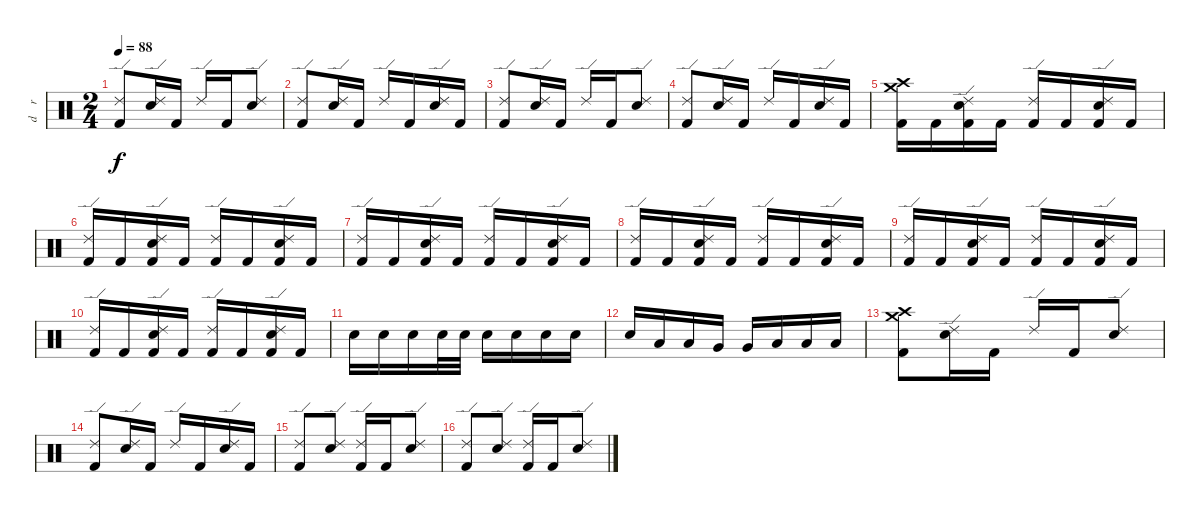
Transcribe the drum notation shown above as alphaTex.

\track ("d    r     u    m    s" "d    r    ") {instrument percussion}
\staff {score}
\articulation defaults
\ts (2 4)
\tempo 88
\clef neutral
\ks c
("Ride (edge) 2" "Kick (hit) 2").8{dy f} ("Ride (edge) 2" "Electric Snare (hit)").16 "Kick (hit) 2".16 "Ride (edge) 2".16 "Kick (hit) 2".16 ("Ride (edge) 2" "Electric Snare (hit)").8 |
("Ride (edge) 2" "Kick (hit) 2").8 ("Ride (edge) 2" "Electric Snare (hit)").16 "Kick (hit) 2".16 "Ride (edge) 2".16 "Kick (hit) 2".16 ("Ride (edge) 2" "Electric Snare (hit)").16 "Kick (hit) 2".16 |
("Ride (edge) 2" "Kick (hit) 2").8 ("Ride (edge) 2" "Electric Snare (hit)").16 "Kick (hit) 2".16 "Ride (edge) 2".16 "Kick (hit) 2".16 ("Ride (edge) 2" "Electric Snare (hit)").8 |
("Ride (edge) 2" "Kick (hit) 2").8 ("Ride (edge) 2" "Electric Snare (hit)").16 "Kick (hit) 2".16 "Ride (edge) 2".16 "Kick (hit) 2".16 ("Ride (edge) 2" "Electric Snare (hit)").16 "Kick (hit) 2".16 |
("Crash high (hit)" "Crash medium (hit)" "Kick (hit) 2").16 "Kick (hit) 2".16 ("Ride (edge) 2" "Electric Snare (hit)" "Kick (hit) 2").16 "Kick (hit) 2".16 ("Ride (edge) 2" "Kick (hit) 2").16 "Kick (hit) 2".16 ("Ride (edge) 2" "Electric Snare (hit)" "Kick (hit) 2").16 "Kick (hit) 2".16 |
("Ride (edge) 2" "Kick (hit) 2").16 "Kick (hit) 2".16 ("Ride (edge) 2" "Electric Snare (hit)" "Kick (hit) 2").16 "Kick (hit) 2".16 ("Ride (edge) 2" "Kick (hit) 2").16 "Kick (hit) 2".16 ("Ride (edge) 2" "Electric Snare (hit)" "Kick (hit) 2").16 "Kick (hit) 2".16 |
("Ride (edge) 2" "Kick (hit) 2").16 "Kick (hit) 2".16 ("Ride (edge) 2" "Electric Snare (hit)" "Kick (hit) 2").16 "Kick (hit) 2".16 ("Ride (edge) 2" "Kick (hit) 2").16 "Kick (hit) 2".16 ("Ride (edge) 2" "Electric Snare (hit)" "Kick (hit) 2").16 "Kick (hit) 2".16 |
("Ride (edge) 2" "Kick (hit) 2").16 "Kick (hit) 2".16 ("Ride (edge) 2" "Electric Snare (hit)" "Kick (hit) 2").16 "Kick (hit) 2".16 ("Ride (edge) 2" "Kick (hit) 2").16 "Kick (hit) 2".16 ("Ride (edge) 2" "Electric Snare (hit)" "Kick (hit) 2").16 "Kick (hit) 2".16 |
("Ride (edge) 2" "Kick (hit) 2").16 "Kick (hit) 2".16 ("Ride (edge) 2" "Electric Snare (hit)" "Kick (hit) 2").16 "Kick (hit) 2".16 ("Ride (edge) 2" "Kick (hit) 2").16 "Kick (hit) 2".16 ("Ride (edge) 2" "Electric Snare (hit)" "Kick (hit) 2").16 "Kick (hit) 2".16 |
("Ride (edge) 2" "Kick (hit) 2").16 "Kick (hit) 2".16 ("Ride (edge) 2" "Electric Snare (hit)" "Kick (hit) 2").16 "Kick (hit) 2".16 ("Ride (edge) 2" "Kick (hit) 2").16 "Kick (hit) 2".16 ("Ride (edge) 2" "Electric Snare (hit)" "Kick (hit) 2").16 "Kick (hit) 2".16 |
"Electric Snare (hit)".16 "Electric Snare (hit)".16 "Electric Snare (hit)".16 "Electric Snare (hit)".32 "Electric Snare (hit)".32 "Electric Snare (hit)".16 "Electric Snare (hit)".16 "Electric Snare (hit)".16 "Electric Snare (hit)".16 |
"Electric Snare (hit)".16 "Low Tom (hit)".16 "Low Tom (hit)".16 "Very Low Tom (hit)".16 "Very Low Tom (hit)".16 "Low Floor Tom (hit)".16 "Low Floor Tom (hit)".16 "Low Floor Tom (hit)".16 |
("Crash high (hit)" "Crash medium (hit)" "Kick (hit) 2").8 ("Ride (edge) 2" "Electric Snare (hit)").16 "Kick (hit) 2".16 "Ride (edge) 2".16 "Kick (hit) 2".16 ("Ride (edge) 2" "Electric Snare (hit)").8 |
("Ride (edge) 2" "Kick (hit) 2").8 ("Ride (edge) 2" "Electric Snare (hit)").16 "Kick (hit) 2".16 "Ride (edge) 2".16 "Kick (hit) 2".16 ("Ride (edge) 2" "Electric Snare (hit)").16 "Kick (hit) 2".16 |
("Ride (edge) 2" "Kick (hit) 2").8 ("Ride (edge) 2" "Electric Snare (hit)").8 ("Ride (edge) 2" "Kick (hit) 2").16 "Kick (hit) 2".16 ("Ride (edge) 2" "Electric Snare (hit)").8 |
("Ride (edge) 2" "Kick (hit) 2").8 ("Ride (edge) 2" "Electric Snare (hit)").8 ("Ride (edge) 2" "Kick (hit) 2").16 "Kick (hit) 2".16 ("Ride (edge) 2" "Electric Snare (hit)").8
